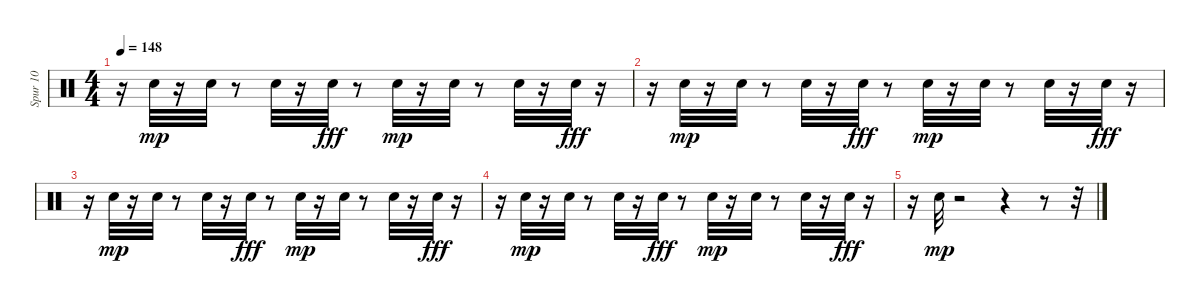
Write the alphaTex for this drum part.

\track ("Spur 10" "Spur 10") {instrument percussion}
\staff {score}
\articulation defaults
\ts (4 4)
\tempo 148
\clef neutral
\ks c
r.16{dy fff} "Snare (hit) 2".32{dy mp volume 9} r.16 "Snare (hit) 2".32{volume 9} r.8 "Snare (hit) 2".32{volume 9} r.16 "Snare (hit) 2".32{dy fff volume 8} r.8 "Snare (hit) 2".32{dy mp volume 8} r.16 "Snare (hit) 2".32{volume 8} r.8 "Snare (hit) 2".32{volume 8} r.16 "Snare (hit) 2".32{dy fff volume 8} r.16 |
r.16 "Snare (hit) 2".32{dy mp volume 7} r.16 "Snare (hit) 2".32 r.8 "Snare (hit) 2".32{volume 7} r.16 "Snare (hit) 2".32{dy fff volume 7} r.8 "Snare (hit) 2".32{dy mp volume 6} r.16 "Snare (hit) 2".32{volume 6} r.8 "Snare (hit) 2".32{volume 6} r.16 "Snare (hit) 2".32{dy fff volume 6} r.16 |
r.16 "Snare (hit) 2".32{dy mp volume 6} r.16 "Snare (hit) 2".32{volume 5} r.8 "Snare (hit) 2".32{volume 5} r.16 "Snare (hit) 2".32{dy fff volume 5} r.8 "Snare (hit) 2".32{dy mp volume 4} r.16 "Snare (hit) 2".32{volume 4} r.8 "Snare (hit) 2".32{volume 4} r.16 "Snare (hit) 2".32{dy fff volume 4} r.16 |
r.16 "Snare (hit) 2".32{dy mp volume 4} r.16 "Snare (hit) 2".32{volume 4} r.8 "Snare (hit) 2".32{volume 3} r.16 "Snare (hit) 2".32{dy fff volume 3} r.8 "Snare (hit) 2".32{dy mp volume 3} r.16 "Snare (hit) 2".32{volume 3} r.8 "Snare (hit) 2".32{volume 2} r.16 "Snare (hit) 2".32{dy fff} r.16 |
r.16 "Snare (hit) 2".32{dy mp volume 2} r.2 r.4 r.8 r.32
